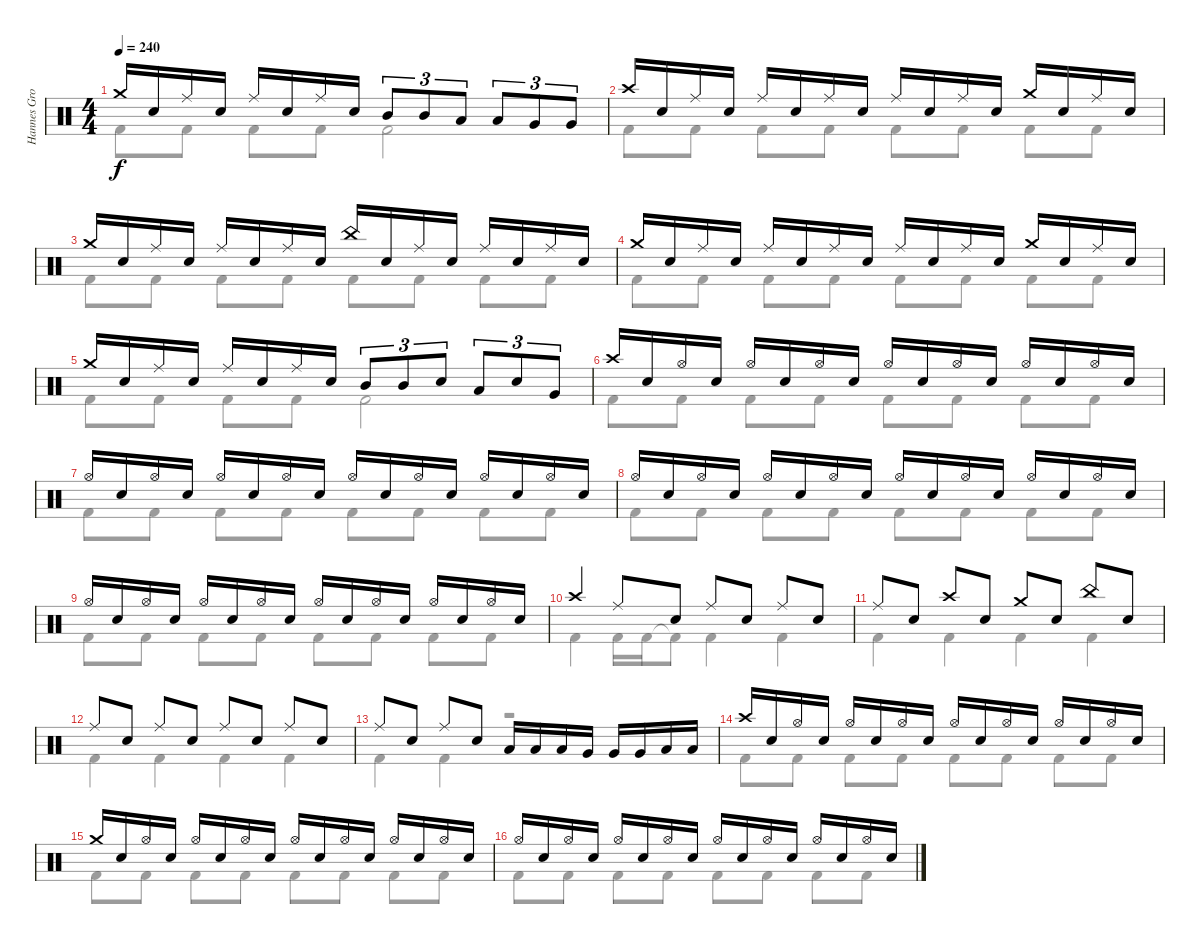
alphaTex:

\track ("Hannes Grossmann - drums" "Hannes Gro") {instrument percussion}
\staff {score}
\articulation defaults
\voice
\ts (4 4)
\tempo 240
\clef neutral
\ks c "Crash medium (hit)".16{dy f} "Electric Snare (hit)".16 "Ride (middle)".16 "Electric Snare (hit)".16 "Ride (middle)".16 "Electric Snare (hit)".16 "Ride (middle)".16 "Electric Snare (hit)".16 "Mid Tom (hit)".8{tu (3 2)} "Mid Tom (hit)".8{tu (3 2)} "Low Tom (hit)".8{tu (3 2)} "Low Tom (hit)".8{tu (3 2)} "Very Low Tom (hit)".8{tu (3 2)} "Very Low Tom (hit)".8{tu (3 2)}
|
"Crash high (hit)".16 "Electric Snare (hit)".16 "Ride (middle)".16 "Electric Snare (hit)".16 "Ride (middle)".16 "Electric Snare (hit)".16 "Ride (middle)".16 "Electric Snare (hit)".16 "Ride (middle)".16 "Electric Snare (hit)".16 "Ride (middle)".16 "Electric Snare (hit)".16 "Crash medium (hit)".16 "Electric Snare (hit)".16 "Ride (middle)".16 "Electric Snare (hit)".16 |
"Crash medium (hit)".16 "Electric Snare (hit)".16 "Ride (middle)".16 "Electric Snare (hit)".16 "Ride (middle)".16 "Electric Snare (hit)".16 "Ride (middle)".16 "Electric Snare (hit)".16 "China (hit)".16 "Electric Snare (hit)".16 "Ride (middle)".16 "Electric Snare (hit)".16 "Ride (middle)".16 "Electric Snare (hit)".16 "Ride (middle)".16 "Electric Snare (hit)".16 |
"Crash medium (hit)".16 "Electric Snare (hit)".16 "Ride (middle)".16 "Electric Snare (hit)".16 "Ride (middle)".16 "Electric Snare (hit)".16 "Ride (middle)".16 "Electric Snare (hit)".16 "Ride (middle)".16 "Electric Snare (hit)".16 "Ride (middle)".16 "Electric Snare (hit)".16 "Crash medium (hit)".16 "Electric Snare (hit)".16 "Ride (middle)".16 "Electric Snare (hit)".16 |
"Crash medium (hit)".16 "Electric Snare (hit)".16 "Ride (middle)".16 "Electric Snare (hit)".16 "Ride (middle)".16 "Electric Snare (hit)".16 "Ride (middle)".16 "Electric Snare (hit)".16 "Mid Tom (hit)".8{tu (3 2)} "Mid Tom (hit)".8{tu (3 2)} "Electric Snare (hit)".8{tu (3 2)} "Low Tom (hit)".8{tu (3 2)} "Electric Snare (hit)".8{tu (3 2)} "Very Low Tom (hit)".8{tu (3 2)} |
"Crash high (hit)".16 "Electric Snare (hit)".16 "Hi-Hat (open)".16 "Electric Snare (hit)".16 "Hi-Hat (open)".16 "Electric Snare (hit)".16 "Hi-Hat (open)".16 "Electric Snare (hit)".16 "Hi-Hat (open)".16 "Electric Snare (hit)".16 "Hi-Hat (open)".16 "Electric Snare (hit)".16 "Hi-Hat (open)".16 "Electric Snare (hit)".16 "Hi-Hat (open)".16 "Electric Snare (hit)".16 |
"Hi-Hat (open)".16 "Electric Snare (hit)".16 "Hi-Hat (open)".16 "Electric Snare (hit)".16 "Hi-Hat (open)".16 "Electric Snare (hit)".16 "Hi-Hat (open)".16 "Electric Snare (hit)".16 "Hi-Hat (open)".16 "Electric Snare (hit)".16 "Hi-Hat (open)".16 "Electric Snare (hit)".16 "Hi-Hat (open)".16 "Electric Snare (hit)".16 "Hi-Hat (open)".16 "Electric Snare (hit)".16 |
"Hi-Hat (open)".16 "Electric Snare (hit)".16 "Hi-Hat (open)".16 "Electric Snare (hit)".16 "Hi-Hat (open)".16 "Electric Snare (hit)".16 "Hi-Hat (open)".16 "Electric Snare (hit)".16 "Hi-Hat (open)".16 "Electric Snare (hit)".16 "Hi-Hat (open)".16 "Electric Snare (hit)".16 "Hi-Hat (open)".16 "Electric Snare (hit)".16 "Hi-Hat (open)".16 "Electric Snare (hit)".16 |
"Hi-Hat (open)".16 "Electric Snare (hit)".16 "Hi-Hat (open)".16 "Electric Snare (hit)".16 "Hi-Hat (open)".16 "Electric Snare (hit)".16 "Hi-Hat (open)".16 "Electric Snare (hit)".16 "Hi-Hat (open)".16 "Electric Snare (hit)".16 "Hi-Hat (open)".16 "Electric Snare (hit)".16 "Hi-Hat (open)".16 "Electric Snare (hit)".16 "Hi-Hat (open)".16 "Electric Snare (hit)".16 |
"Crash high (hit)".4 "Ride (middle)".8 "Electric Snare (hit)".8 "Ride (middle)".8 "Electric Snare (hit)".8 "Ride (middle)".8 "Electric Snare (hit)".8 |
"Ride (middle)".8 "Electric Snare (hit)".8 "Crash high (hit)".8 "Electric Snare (hit)".8 "Crash medium (hit)".8 "Electric Snare (hit)".8 "China (hit)".8 "Electric Snare (hit)".8 |
"Ride (middle)".8 "Electric Snare (hit)".8 "Ride (middle)".8 "Electric Snare (hit)".8 "Ride (middle)".8 "Electric Snare (hit)".8 "Ride (middle)".8 "Electric Snare (hit)".8 |
"Ride (middle)".8 "Electric Snare (hit)".8 "Ride (middle)".8 "Electric Snare (hit)".8 "Low Tom (hit)".16 "Low Tom (hit)".16 "Low Tom (hit)".16 "Very Low Tom (hit)".16 "Very Low Tom (hit)".16 "Very Low Tom (hit)".16 "Low Floor Tom (hit)".16 "Low Floor Tom (hit)".16 |
"Crash high (hit)".16 "Electric Snare (hit)".16 "Hi-Hat (open)".16 "Electric Snare (hit)".16 "Hi-Hat (open)".16 "Electric Snare (hit)".16 "Hi-Hat (open)".16 "Electric Snare (hit)".16 "Hi-Hat (open)".16 "Electric Snare (hit)".16 "Hi-Hat (open)".16 "Electric Snare (hit)".16 "Hi-Hat (open)".16 "Electric Snare (hit)".16 "Hi-Hat (open)".16 "Electric Snare (hit)".16 |
"Crash medium (hit)".16 "Electric Snare (hit)".16 "Hi-Hat (open)".16 "Electric Snare (hit)".16 "Hi-Hat (open)".16 "Electric Snare (hit)".16 "Hi-Hat (open)".16 "Electric Snare (hit)".16 "Hi-Hat (open)".16 "Electric Snare (hit)".16 "Hi-Hat (open)".16 "Electric Snare (hit)".16 "Hi-Hat (open)".16 "Electric Snare (hit)".16 "Hi-Hat (open)".16 "Electric Snare (hit)".16 |
"Hi-Hat (open)".16 "Electric Snare (hit)".16 "Hi-Hat (open)".16 "Electric Snare (hit)".16 "Hi-Hat (open)".16 "Electric Snare (hit)".16 "Hi-Hat (open)".16 "Electric Snare (hit)".16 "Hi-Hat (open)".16 "Electric Snare (hit)".16 "Hi-Hat (open)".16 "Electric Snare (hit)".16 "Hi-Hat (open)".16 "Electric Snare (hit)".16 "Hi-Hat (open)".16 "Electric Snare (hit)".16
\voice
\clef neutral
\ottava regular
\simile none
\ks c "Kick (hit) 2".8{dy f} "Kick (hit) 2".8 "Kick (hit) 2".8 "Kick (hit) 2".8 "Kick (hit) 2".2
|
"Kick (hit) 2".8 "Kick (hit) 2".8 "Kick (hit) 2".8 "Kick (hit) 2".8 "Kick (hit) 2".8 "Kick (hit) 2".8 "Kick (hit) 2".8 "Kick (hit) 2".8 |
"Kick (hit) 2".8 "Kick (hit) 2".8 "Kick (hit) 2".8 "Kick (hit) 2".8 "Kick (hit) 2".8 "Kick (hit) 2".8 "Kick (hit) 2".8 "Kick (hit) 2".8 |
"Kick (hit) 2".8 "Kick (hit) 2".8 "Kick (hit) 2".8 "Kick (hit) 2".8 "Kick (hit) 2".8 "Kick (hit) 2".8 "Kick (hit) 2".8 "Kick (hit) 2".8 |
"Kick (hit) 2".8 "Kick (hit) 2".8 "Kick (hit) 2".8 "Kick (hit) 2".8 "Kick (hit) 2".2 |
"Kick (hit) 2".8 "Kick (hit) 2".8 "Kick (hit) 2".8 "Kick (hit) 2".8 "Kick (hit) 2".8 "Kick (hit) 2".8 "Kick (hit) 2".8 "Kick (hit) 2".8 |
"Kick (hit) 2".8 "Kick (hit) 2".8 "Kick (hit) 2".8 "Kick (hit) 2".8 "Kick (hit) 2".8 "Kick (hit) 2".8 "Kick (hit) 2".8 "Kick (hit) 2".8 |
"Kick (hit) 2".8 "Kick (hit) 2".8 "Kick (hit) 2".8 "Kick (hit) 2".8 "Kick (hit) 2".8 "Kick (hit) 2".8 "Kick (hit) 2".8 "Kick (hit) 2".8 |
"Kick (hit) 2".8 "Kick (hit) 2".8 "Kick (hit) 2".8 "Kick (hit) 2".8 "Kick (hit) 2".8 "Kick (hit) 2".8 "Kick (hit) 2".8 "Kick (hit) 2".8 |
"Kick (hit) 2".4 "Kick (hit) 2".16 "Kick (hit) 2".16 "Kick (hit) 2"{t}.8 "Kick (hit) 2".4 "Kick (hit) 2".4 |
"Kick (hit) 2".4 "Kick (hit) 2".4 "Kick (hit) 2".4 "Kick (hit) 2".4 |
"Kick (hit) 2".4 "Kick (hit) 2".4 "Kick (hit) 2".4 "Kick (hit) 2".4 |
"Kick (hit) 2".4 "Kick (hit) 2".4 r.2 |
"Kick (hit) 2".8 "Kick (hit) 2".8 "Kick (hit) 2".8 "Kick (hit) 2".8 "Kick (hit) 2".8 "Kick (hit) 2".8 "Kick (hit) 2".8 "Kick (hit) 2".8 |
"Kick (hit) 2".8 "Kick (hit) 2".8 "Kick (hit) 2".8 "Kick (hit) 2".8 "Kick (hit) 2".8 "Kick (hit) 2".8 "Kick (hit) 2".8 "Kick (hit) 2".8 |
"Kick (hit) 2".8 "Kick (hit) 2".8 "Kick (hit) 2".8 "Kick (hit) 2".8 "Kick (hit) 2".8 "Kick (hit) 2".8 "Kick (hit) 2".8 "Kick (hit) 2".8
